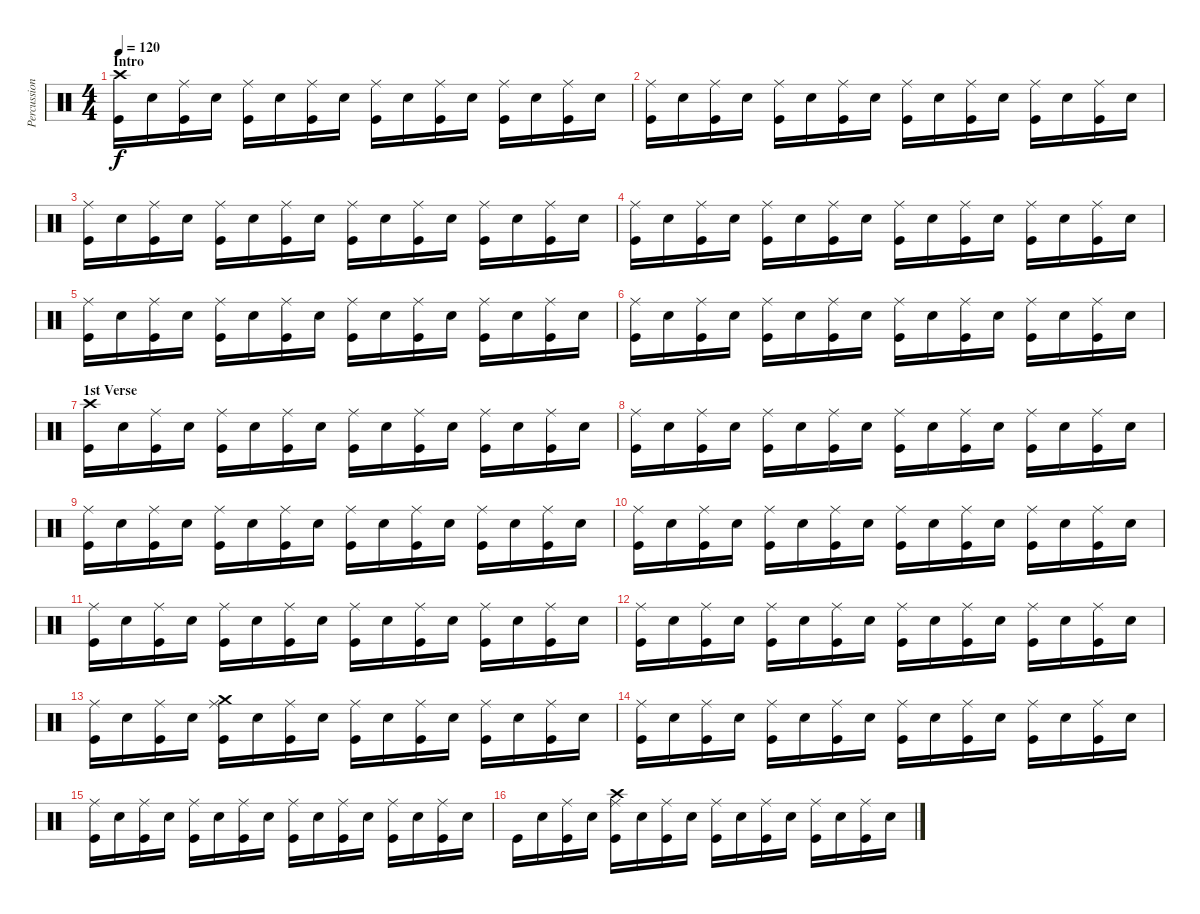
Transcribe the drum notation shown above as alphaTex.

\track ("Percussioni" "Percussion") {instrument percussion}
\staff {score}
\articulation defaults
\ts (4 4)
\section ("" "Intro")
\tempo 120
\tempo 140
\tempo 120
\clef neutral
\ks c
("Crash high (hit)" "Kick (hit)").16{dy f} "Snare (hit) 2".16 ("Ride (middle)" "Kick (hit)").16 "Snare (hit) 2".16 ("Ride (middle)" "Kick (hit)").16 "Snare (hit) 2".16 ("Ride (middle)" "Kick (hit)").16 "Snare (hit) 2".16 ("Ride (middle)" "Kick (hit)").16 "Snare (hit) 2".16 ("Ride (middle)" "Kick (hit)").16 "Snare (hit) 2".16 ("Ride (middle)" "Kick (hit)").16 "Snare (hit) 2".16 ("Ride (middle)" "Kick (hit)").16 "Snare (hit) 2".16 |
("Ride (middle)" "Kick (hit)").16 "Snare (hit) 2".16 ("Ride (middle)" "Kick (hit)").16 "Snare (hit) 2".16 ("Ride (middle)" "Kick (hit)").16 "Snare (hit) 2".16 ("Ride (middle)" "Kick (hit)").16 "Snare (hit) 2".16 ("Ride (middle)" "Kick (hit)").16 "Snare (hit) 2".16 ("Ride (middle)" "Kick (hit)").16 "Snare (hit) 2".16 ("Ride (middle)" "Kick (hit)").16 "Snare (hit) 2".16 ("Ride (middle)" "Kick (hit)").16 "Snare (hit) 2".16 |
("Ride (middle)" "Kick (hit)").16 "Snare (hit) 2".16 ("Ride (middle)" "Kick (hit)").16 "Snare (hit) 2".16 ("Ride (middle)" "Kick (hit)").16 "Snare (hit) 2".16 ("Ride (middle)" "Kick (hit)").16 "Snare (hit) 2".16 ("Ride (middle)" "Kick (hit)").16 "Snare (hit) 2".16 ("Ride (middle)" "Kick (hit)").16 "Snare (hit) 2".16 ("Ride (middle)" "Kick (hit)").16 "Snare (hit) 2".16 ("Ride (middle)" "Kick (hit)").16 "Snare (hit) 2".16 |
("Ride (middle)" "Kick (hit)").16 "Snare (hit) 2".16 ("Ride (middle)" "Kick (hit)").16 "Snare (hit) 2".16 ("Ride (middle)" "Kick (hit)").16 "Snare (hit) 2".16 ("Ride (middle)" "Kick (hit)").16 "Snare (hit) 2".16 ("Ride (middle)" "Kick (hit)").16 "Snare (hit) 2".16 ("Ride (middle)" "Kick (hit)").16 "Snare (hit) 2".16 ("Ride (middle)" "Kick (hit)").16 "Snare (hit) 2".16 ("Ride (middle)" "Kick (hit)").16 "Snare (hit) 2".16 |
("Ride (middle)" "Kick (hit)").16 "Snare (hit) 2".16 ("Ride (middle)" "Kick (hit)").16 "Snare (hit) 2".16 ("Ride (middle)" "Kick (hit)").16 "Snare (hit) 2".16 ("Ride (middle)" "Kick (hit)").16 "Snare (hit) 2".16 ("Ride (middle)" "Kick (hit)").16 "Snare (hit) 2".16 ("Ride (middle)" "Kick (hit)").16 "Snare (hit) 2".16 ("Ride (middle)" "Kick (hit)").16 "Snare (hit) 2".16 ("Ride (middle)" "Kick (hit)").16 "Snare (hit) 2".16 |
("Ride (middle)" "Kick (hit)").16 "Snare (hit) 2".16 ("Ride (middle)" "Kick (hit)").16 "Snare (hit) 2".16 ("Ride (middle)" "Kick (hit)").16 "Snare (hit) 2".16 ("Ride (middle)" "Kick (hit)").16 "Snare (hit) 2".16 ("Ride (middle)" "Kick (hit)").16 "Snare (hit) 2".16 ("Ride (middle)" "Kick (hit)").16 "Snare (hit) 2".16 ("Ride (middle)" "Kick (hit)").16 "Snare (hit) 2".16 ("Ride (middle)" "Kick (hit)").16 "Snare (hit) 2".16 |
\section ("" "1st Verse")
("Crash high (hit)" "Kick (hit)").16 "Snare (hit) 2".16 ("Ride (middle)" "Kick (hit)").16 "Snare (hit) 2".16 ("Ride (middle)" "Kick (hit)").16 "Snare (hit) 2".16 ("Ride (middle)" "Kick (hit)").16 "Snare (hit) 2".16 ("Ride (middle)" "Kick (hit)").16 "Snare (hit) 2".16 ("Ride (middle)" "Kick (hit)").16 "Snare (hit) 2".16 ("Ride (middle)" "Kick (hit)").16 "Snare (hit) 2".16 ("Ride (middle)" "Kick (hit)").16 "Snare (hit) 2".16 |
("Ride (middle)" "Kick (hit)").16 "Snare (hit) 2".16 ("Ride (middle)" "Kick (hit)").16 "Snare (hit) 2".16 ("Ride (middle)" "Kick (hit)").16 "Snare (hit) 2".16 ("Ride (middle)" "Kick (hit)").16 "Snare (hit) 2".16 ("Ride (middle)" "Kick (hit)").16 "Snare (hit) 2".16 ("Ride (middle)" "Kick (hit)").16 "Snare (hit) 2".16 ("Ride (middle)" "Kick (hit)").16 "Snare (hit) 2".16 ("Ride (middle)" "Kick (hit)").16 "Snare (hit) 2".16 |
("Ride (middle)" "Kick (hit)").16 "Snare (hit) 2".16 ("Ride (middle)" "Kick (hit)").16 "Snare (hit) 2".16 ("Ride (middle)" "Kick (hit)").16 "Snare (hit) 2".16 ("Ride (middle)" "Kick (hit)").16 "Snare (hit) 2".16 ("Ride (middle)" "Kick (hit)").16 "Snare (hit) 2".16 ("Ride (middle)" "Kick (hit)").16 "Snare (hit) 2".16 ("Ride (middle)" "Kick (hit)").16 "Snare (hit) 2".16 ("Ride (middle)" "Kick (hit)").16 "Snare (hit) 2".16 |
("Ride (middle)" "Kick (hit)").16 "Snare (hit) 2".16 ("Ride (middle)" "Kick (hit)").16 "Snare (hit) 2".16 ("Ride (middle)" "Kick (hit)").16 "Snare (hit) 2".16 ("Ride (middle)" "Kick (hit)").16 "Snare (hit) 2".16 ("Ride (middle)" "Kick (hit)").16 "Snare (hit) 2".16 ("Ride (middle)" "Kick (hit)").16 "Snare (hit) 2".16 ("Ride (middle)" "Kick (hit)").16 "Snare (hit) 2".16 ("Ride (middle)" "Kick (hit)").16 "Snare (hit) 2".16 |
("Ride (middle)" "Kick (hit)").16 "Snare (hit) 2".16 ("Ride (middle)" "Kick (hit)").16 "Snare (hit) 2".16 ("Ride (middle)" "Kick (hit)").16 "Snare (hit) 2".16 ("Ride (middle)" "Kick (hit)").16 "Snare (hit) 2".16 ("Ride (middle)" "Kick (hit)").16 "Snare (hit) 2".16 ("Ride (middle)" "Kick (hit)").16 "Snare (hit) 2".16 ("Ride (middle)" "Kick (hit)").16 "Snare (hit) 2".16 ("Ride (middle)" "Kick (hit)").16 "Snare (hit) 2".16 |
("Ride (middle)" "Kick (hit)").16 "Snare (hit) 2".16 ("Ride (middle)" "Kick (hit)").16 "Snare (hit) 2".16 ("Ride (middle)" "Kick (hit)").16 "Snare (hit) 2".16 ("Ride (middle)" "Kick (hit)").16 "Snare (hit) 2".16 ("Ride (middle)" "Kick (hit)").16 "Snare (hit) 2".16 ("Ride (middle)" "Kick (hit)").16 "Snare (hit) 2".16 ("Ride (middle)" "Kick (hit)").16 "Snare (hit) 2".16 ("Ride (middle)" "Kick (hit)").16 "Snare (hit) 2".16 |
("Ride (middle)" "Kick (hit)").16 "Snare (hit) 2".16 ("Ride (middle)" "Kick (hit)").16 "Snare (hit) 2".16 ("Crash medium (hit)" "Ride (middle)" "Kick (hit)").16 "Snare (hit) 2".16 ("Ride (middle)" "Kick (hit)").16 "Snare (hit) 2".16 ("Ride (middle)" "Kick (hit)").16 "Snare (hit) 2".16 ("Ride (middle)" "Kick (hit)").16 "Snare (hit) 2".16 ("Ride (middle)" "Kick (hit)").16 "Snare (hit) 2".16 ("Ride (middle)" "Kick (hit)").16 "Snare (hit) 2".16 |
("Ride (middle)" "Kick (hit)").16 "Snare (hit) 2".16 ("Ride (middle)" "Kick (hit)").16 "Snare (hit) 2".16 ("Ride (middle)" "Kick (hit)").16 "Snare (hit) 2".16 ("Ride (middle)" "Kick (hit)").16 "Snare (hit) 2".16 ("Ride (middle)" "Kick (hit)").16 "Snare (hit) 2".16 ("Ride (middle)" "Kick (hit)").16 "Snare (hit) 2".16 ("Ride (middle)" "Kick (hit)").16 "Snare (hit) 2".16 ("Ride (middle)" "Kick (hit)").16 "Snare (hit) 2".16 |
("Ride (middle)" "Kick (hit)").16 "Snare (hit) 2".16 ("Ride (middle)" "Kick (hit)").16 "Snare (hit) 2".16 ("Ride (middle)" "Kick (hit)").16 "Snare (hit) 2".16 ("Ride (middle)" "Kick (hit)").16 "Snare (hit) 2".16 ("Ride (middle)" "Kick (hit)").16 "Snare (hit) 2".16 ("Ride (middle)" "Kick (hit)").16 "Snare (hit) 2".16 ("Ride (middle)" "Kick (hit)").16 "Snare (hit) 2".16 ("Ride (middle)" "Kick (hit)").16 "Snare (hit) 2".16 |
"Kick (hit)".16 "Snare (hit) 2".16 ("Ride (middle)" "Kick (hit)").16 "Snare (hit) 2".16 ("Crash high (hit)" "Ride (middle)" "Kick (hit)").16 "Snare (hit) 2".16 ("Ride (middle)" "Kick (hit)").16 "Snare (hit) 2".16 ("Ride (middle)" "Kick (hit)").16 "Snare (hit) 2".16 ("Ride (middle)" "Kick (hit)").16 "Snare (hit) 2".16 ("Ride (middle)" "Kick (hit)").16 "Snare (hit) 2".16 ("Ride (middle)" "Kick (hit)").16 "Snare (hit) 2".16
